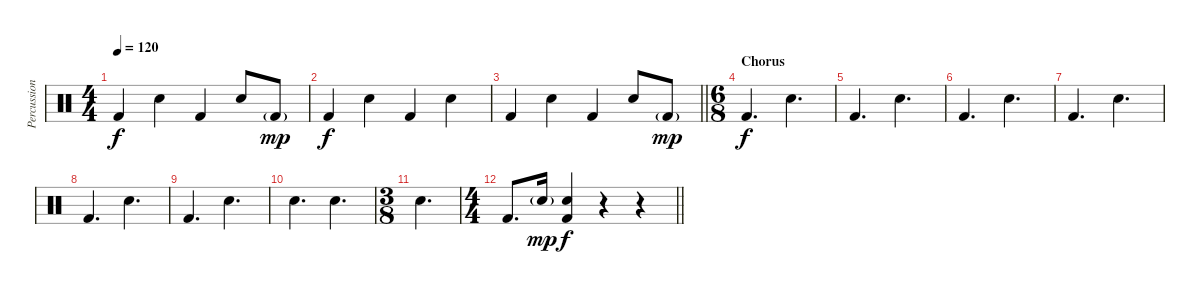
\track ("Percussion" "Percussion") {instrument percussion}
\staff {score}
\articulation defaults
\ts (4 4)
\tempo 120
\clef neutral
\ks c "Kick (hit) 2".4{dy f} "Snare (hit) 2".4 "Kick (hit) 2".4 "Snare (hit) 2".8 "Kick (hit) 2"{g}.8{dy mp}
|
"Kick (hit) 2".4{dy f} "Snare (hit) 2".4 "Kick (hit) 2".4 "Snare (hit) 2".4 |
\barLineRight lightlight "Kick (hit) 2".4 "Snare (hit) 2".4 "Kick (hit) 2".4 "Snare (hit) 2".8 "Kick (hit) 2"{g}.8{dy mp}
|
\ts (6 8)
\section ("" "Chorus")
"Kick (hit) 2".4{d dy f} "Snare (hit) 2".4{d} |
"Kick (hit) 2".4{d} "Snare (hit) 2".4{d} |
"Kick (hit) 2".4{d} "Snare (hit) 2".4{d} |
"Kick (hit) 2".4{d} "Snare (hit) 2".4{d} |
"Kick (hit) 2".4{d} "Snare (hit) 2".4{d} |
"Kick (hit) 2".4{d} "Snare (hit) 2".4{d} |
"Snare (hit) 2".4{d} "Snare (hit) 2".4{d} |
\ts (3 8)
"Snare (hit) 2".4{d} |
\ts (4 4)
\barLineRight lightlight "Kick (hit) 2".8{d} "Snare (hit) 2"{g}.16{dy mp}
("Snare (hit) 2" "Kick (hit) 2").4{dy f} r.4 r.4
